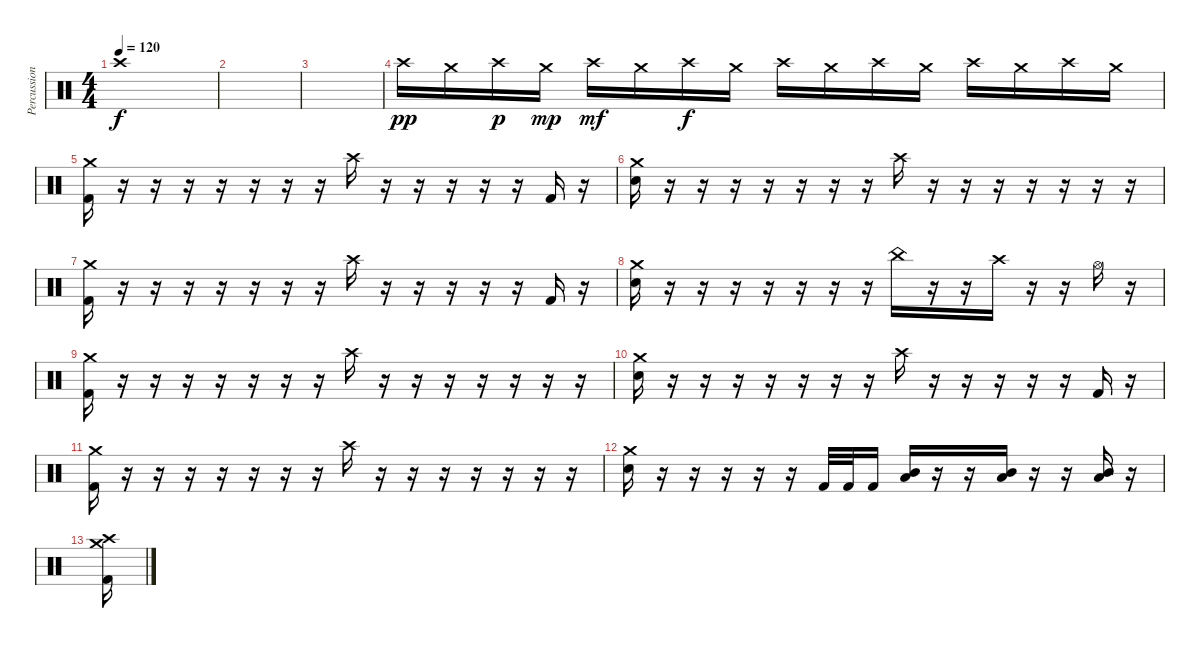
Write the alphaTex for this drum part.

\track ("Percussion" "Percussion") {instrument percussion}
\staff {score}
\articulation defaults
\ts (4 4)
\tempo 120
\clef neutral
\ks c "Crash high (hit)".1{dy f}
|
|
|
"Crash high (hit)".16{dy pp} "Crash medium (hit)".16 "Crash high (hit)".16{dy p} "Crash medium (hit)".16{dy mp} "Crash high (hit)".16{dy mf} "Crash medium (hit)".16 "Crash high (hit)".16{dy f} "Crash medium (hit)".16 "Crash high (hit)".16 "Crash medium (hit)".16 "Crash high (hit)".16 "Crash medium (hit)".16 "Crash high (hit)".16 "Crash medium (hit)".16 "Crash high (hit)".16 "Crash medium (hit)".16 |
("Crash medium (hit)" "Kick (hit) 2").16 r.16 r.16 r.16 r.16 r.16 r.16 r.16 "Crash high (hit)".16 r.16 r.16 r.16 r.16 r.16 "Kick (hit) 2".16 r.16 |
("Crash medium (hit)" "Snare (hit) 2").16 r.16 r.16 r.16 r.16 r.16 r.16 r.16 "Crash high (hit)".16 r.16 r.16 r.16 r.16 r.16 r.16 r.16 |
("Crash medium (hit)" "Kick (hit) 2").16 r.16 r.16 r.16 r.16 r.16 r.16 r.16 "Crash high (hit)".16 r.16 r.16 r.16 r.16 r.16 "Kick (hit) 2".16 r.16 |
("Crash medium (hit)" "Snare (hit) 2").16 r.16 r.16 r.16 r.16 r.16 r.16 r.16 "China (hit)".16 r.16 r.16 "Crash high (hit)".16 r.16 r.16 "Hi-Hat (open)".16 r.16 |
("Crash medium (hit)" "Kick (hit) 2").16 r.16 r.16 r.16 r.16 r.16 r.16 r.16 "Crash high (hit)".16 r.16 r.16 r.16 r.16 r.16 r.16 r.16 |
("Crash medium (hit)" "Snare (hit) 2").16 r.16 r.16 r.16 r.16 r.16 r.16 r.16 "Crash high (hit)".16 r.16 r.16 r.16 r.16 r.16 "Kick (hit) 2".16 r.16 |
("Crash medium (hit)" "Kick (hit) 2").16 r.16 r.16 r.16 r.16 r.16 r.16 r.16 "Crash high (hit)".16 r.16 r.16 r.16 r.16 r.16 r.16 r.16 |
("Crash medium (hit)" "Snare (hit) 2").16 r.16 r.16 r.16 r.16 r.16 "Kick (hit) 2".32 "Kick (hit) 2".32 "Kick (hit) 2".16 ("Low Tom (hit)" "Mid Tom (hit)").16 r.16 r.16 ("Low Tom (hit)" "Mid Tom (hit)").16 r.16 r.16 ("Low Tom (hit)" "Mid Tom (hit)").16 r.16 |
("Crash high (hit)" "Crash medium (hit)" "Kick (hit) 2").16
